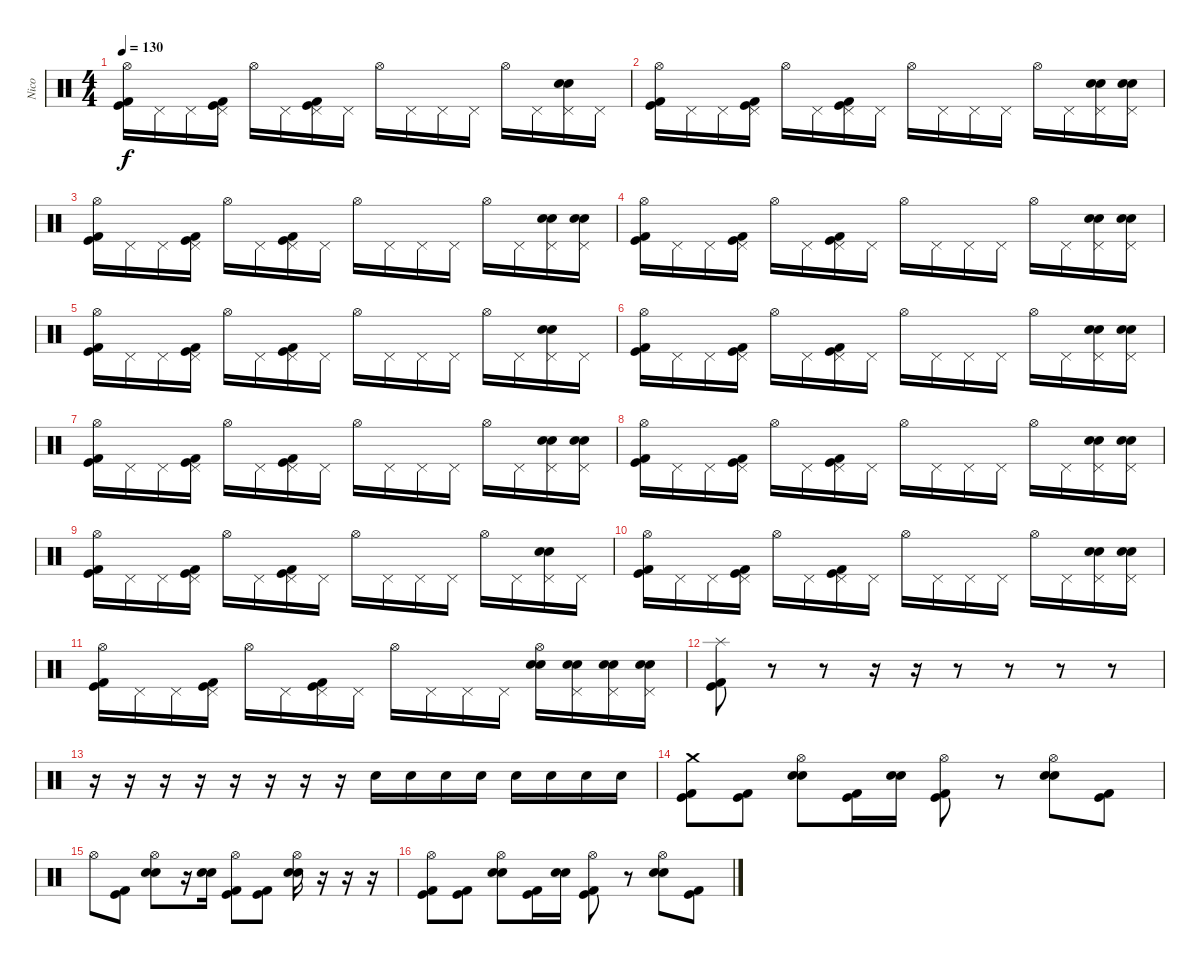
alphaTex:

\track ("Nico" "Nico") {instrument percussion}
\staff {score}
\articulation defaults
\ts (4 4)
\tempo 130
\clef neutral
\ks c
("Hi-Hat (open)" "Kick (hit) 2" "Kick (hit)").16{dy f} "Pedal Hi-Hat (hit)".16 "Pedal Hi-Hat (hit)".16 ("Pedal Hi-Hat (hit)" "Kick (hit) 2" "Kick (hit)").16 "Hi-Hat (open)".16 "Pedal Hi-Hat (hit)".16 ("Pedal Hi-Hat (hit)" "Kick (hit) 2" "Kick (hit)").16 "Pedal Hi-Hat (hit)".16 "Hi-Hat (open)".16 "Pedal Hi-Hat (hit)".16 "Pedal Hi-Hat (hit)".16 "Pedal Hi-Hat (hit)".16 "Hi-Hat (open)".16 "Pedal Hi-Hat (hit)".16 ("Pedal Hi-Hat (hit)" "Electric Snare (hit)" "Electric Snare (hit)").16 "Pedal Hi-Hat (hit)".16 |
("Hi-Hat (open)" "Kick (hit) 2" "Kick (hit)").16 "Pedal Hi-Hat (hit)".16 "Pedal Hi-Hat (hit)".16 ("Pedal Hi-Hat (hit)" "Kick (hit) 2" "Kick (hit)").16 "Hi-Hat (open)".16 "Pedal Hi-Hat (hit)".16 ("Pedal Hi-Hat (hit)" "Kick (hit) 2" "Kick (hit)").16 "Pedal Hi-Hat (hit)".16 "Hi-Hat (open)".16 "Pedal Hi-Hat (hit)".16 "Pedal Hi-Hat (hit)".16 "Pedal Hi-Hat (hit)".16 "Hi-Hat (open)".16 "Pedal Hi-Hat (hit)".16 ("Pedal Hi-Hat (hit)" "Electric Snare (hit)" "Electric Snare (hit)").16 ("Pedal Hi-Hat (hit)" "Electric Snare (hit)" "Electric Snare (hit)").16 |
("Hi-Hat (open)" "Kick (hit) 2" "Kick (hit)").16 "Pedal Hi-Hat (hit)".16 "Pedal Hi-Hat (hit)".16 ("Pedal Hi-Hat (hit)" "Kick (hit) 2" "Kick (hit)").16 "Hi-Hat (open)".16 "Pedal Hi-Hat (hit)".16 ("Pedal Hi-Hat (hit)" "Kick (hit) 2" "Kick (hit)").16 "Pedal Hi-Hat (hit)".16 "Hi-Hat (open)".16 "Pedal Hi-Hat (hit)".16 "Pedal Hi-Hat (hit)".16 "Pedal Hi-Hat (hit)".16 "Hi-Hat (open)".16 "Pedal Hi-Hat (hit)".16 ("Pedal Hi-Hat (hit)" "Electric Snare (hit)" "Electric Snare (hit)").16 ("Pedal Hi-Hat (hit)" "Electric Snare (hit)" "Electric Snare (hit)").16 |
("Hi-Hat (open)" "Kick (hit) 2" "Kick (hit)").16 "Pedal Hi-Hat (hit)".16 "Pedal Hi-Hat (hit)".16 ("Pedal Hi-Hat (hit)" "Kick (hit) 2" "Kick (hit)").16 "Hi-Hat (open)".16 "Pedal Hi-Hat (hit)".16 ("Pedal Hi-Hat (hit)" "Kick (hit) 2" "Kick (hit)").16 "Pedal Hi-Hat (hit)".16 "Hi-Hat (open)".16 "Pedal Hi-Hat (hit)".16 "Pedal Hi-Hat (hit)".16 "Pedal Hi-Hat (hit)".16 "Hi-Hat (open)".16 "Pedal Hi-Hat (hit)".16 ("Pedal Hi-Hat (hit)" "Electric Snare (hit)" "Electric Snare (hit)").16 ("Pedal Hi-Hat (hit)" "Electric Snare (hit)" "Electric Snare (hit)").16 |
("Hi-Hat (open)" "Kick (hit) 2" "Kick (hit)").16 "Pedal Hi-Hat (hit)".16 "Pedal Hi-Hat (hit)".16 ("Pedal Hi-Hat (hit)" "Kick (hit) 2" "Kick (hit)").16 "Hi-Hat (open)".16 "Pedal Hi-Hat (hit)".16 ("Pedal Hi-Hat (hit)" "Kick (hit) 2" "Kick (hit)").16 "Pedal Hi-Hat (hit)".16 "Hi-Hat (open)".16 "Pedal Hi-Hat (hit)".16 "Pedal Hi-Hat (hit)".16 "Pedal Hi-Hat (hit)".16 "Hi-Hat (open)".16 "Pedal Hi-Hat (hit)".16 ("Pedal Hi-Hat (hit)" "Electric Snare (hit)" "Electric Snare (hit)").16 "Pedal Hi-Hat (hit)".16 |
("Hi-Hat (open)" "Kick (hit) 2" "Kick (hit)").16 "Pedal Hi-Hat (hit)".16 "Pedal Hi-Hat (hit)".16 ("Pedal Hi-Hat (hit)" "Kick (hit) 2" "Kick (hit)").16 "Hi-Hat (open)".16 "Pedal Hi-Hat (hit)".16 ("Pedal Hi-Hat (hit)" "Kick (hit) 2" "Kick (hit)").16 "Pedal Hi-Hat (hit)".16 "Hi-Hat (open)".16 "Pedal Hi-Hat (hit)".16 "Pedal Hi-Hat (hit)".16 "Pedal Hi-Hat (hit)".16 "Hi-Hat (open)".16 "Pedal Hi-Hat (hit)".16 ("Pedal Hi-Hat (hit)" "Electric Snare (hit)" "Electric Snare (hit)").16 ("Pedal Hi-Hat (hit)" "Electric Snare (hit)" "Electric Snare (hit)").16 |
("Hi-Hat (open)" "Kick (hit) 2" "Kick (hit)").16 "Pedal Hi-Hat (hit)".16 "Pedal Hi-Hat (hit)".16 ("Pedal Hi-Hat (hit)" "Kick (hit) 2" "Kick (hit)").16 "Hi-Hat (open)".16 "Pedal Hi-Hat (hit)".16 ("Pedal Hi-Hat (hit)" "Kick (hit) 2" "Kick (hit)").16 "Pedal Hi-Hat (hit)".16 "Hi-Hat (open)".16 "Pedal Hi-Hat (hit)".16 "Pedal Hi-Hat (hit)".16 "Pedal Hi-Hat (hit)".16 "Hi-Hat (open)".16 "Pedal Hi-Hat (hit)".16 ("Pedal Hi-Hat (hit)" "Electric Snare (hit)" "Electric Snare (hit)").16 ("Pedal Hi-Hat (hit)" "Electric Snare (hit)" "Electric Snare (hit)").16 |
("Hi-Hat (open)" "Kick (hit) 2" "Kick (hit)").16 "Pedal Hi-Hat (hit)".16 "Pedal Hi-Hat (hit)".16 ("Pedal Hi-Hat (hit)" "Kick (hit) 2" "Kick (hit)").16 "Hi-Hat (open)".16 "Pedal Hi-Hat (hit)".16 ("Pedal Hi-Hat (hit)" "Kick (hit) 2" "Kick (hit)").16 "Pedal Hi-Hat (hit)".16 "Hi-Hat (open)".16 "Pedal Hi-Hat (hit)".16 "Pedal Hi-Hat (hit)".16 "Pedal Hi-Hat (hit)".16 "Hi-Hat (open)".16 "Pedal Hi-Hat (hit)".16 ("Pedal Hi-Hat (hit)" "Electric Snare (hit)" "Electric Snare (hit)").16 ("Pedal Hi-Hat (hit)" "Electric Snare (hit)" "Electric Snare (hit)").16 |
("Hi-Hat (open)" "Kick (hit) 2" "Kick (hit)").16 "Pedal Hi-Hat (hit)".16 "Pedal Hi-Hat (hit)".16 ("Pedal Hi-Hat (hit)" "Kick (hit) 2" "Kick (hit)").16 "Hi-Hat (open)".16 "Pedal Hi-Hat (hit)".16 ("Pedal Hi-Hat (hit)" "Kick (hit) 2" "Kick (hit)").16 "Pedal Hi-Hat (hit)".16 "Hi-Hat (open)".16 "Pedal Hi-Hat (hit)".16 "Pedal Hi-Hat (hit)".16 "Pedal Hi-Hat (hit)".16 "Hi-Hat (open)".16 "Pedal Hi-Hat (hit)".16 ("Pedal Hi-Hat (hit)" "Electric Snare (hit)" "Electric Snare (hit)").16 "Pedal Hi-Hat (hit)".16 |
("Hi-Hat (open)" "Kick (hit) 2" "Kick (hit)").16 "Pedal Hi-Hat (hit)".16 "Pedal Hi-Hat (hit)".16 ("Pedal Hi-Hat (hit)" "Kick (hit) 2" "Kick (hit)").16 "Hi-Hat (open)".16 "Pedal Hi-Hat (hit)".16 ("Pedal Hi-Hat (hit)" "Kick (hit) 2" "Kick (hit)").16 "Pedal Hi-Hat (hit)".16 "Hi-Hat (open)".16 "Pedal Hi-Hat (hit)".16 "Pedal Hi-Hat (hit)".16 "Pedal Hi-Hat (hit)".16 "Hi-Hat (open)".16 "Pedal Hi-Hat (hit)".16 ("Pedal Hi-Hat (hit)" "Electric Snare (hit)" "Electric Snare (hit)").16 ("Pedal Hi-Hat (hit)" "Electric Snare (hit)" "Electric Snare (hit)").16 |
("Hi-Hat (open)" "Kick (hit) 2" "Kick (hit)").16 "Pedal Hi-Hat (hit)".16 "Pedal Hi-Hat (hit)".16 ("Pedal Hi-Hat (hit)" "Kick (hit) 2" "Kick (hit)").16 "Hi-Hat (open)".16 "Pedal Hi-Hat (hit)".16 ("Pedal Hi-Hat (hit)" "Kick (hit) 2" "Kick (hit)").16 "Pedal Hi-Hat (hit)".16 "Hi-Hat (open)".16 "Pedal Hi-Hat (hit)".16 "Pedal Hi-Hat (hit)".16 "Pedal Hi-Hat (hit)".16 ("Hi-Hat (open)" "Electric Snare (hit)" "Electric Snare (hit)").16 ("Pedal Hi-Hat (hit)" "Electric Snare (hit)" "Electric Snare (hit)").16 ("Pedal Hi-Hat (hit)" "Electric Snare (hit)" "Electric Snare (hit)").16 ("Pedal Hi-Hat (hit)" "Electric Snare (hit)" "Electric Snare (hit)").16 |
("Splash (hit)" "Kick (hit) 2" "Kick (hit)").8 r.8 r.8 r.16 r.16 r.8 r.8 r.8 r.8 |
r.16 r.16 r.16 r.16 r.16 r.16 r.16 r.16 "Electric Snare (hit)".16 "Electric Snare (hit)".16 "Electric Snare (hit)".16 "Electric Snare (hit)".16 "Electric Snare (hit)".16 "Electric Snare (hit)".16 "Electric Snare (hit)".16 "Electric Snare (hit)".16 |
("Crash medium (hit)" "Kick (hit) 2" "Kick (hit)").8 ("Kick (hit) 2" "Kick (hit)").8 ("Hi-Hat (open)" "Electric Snare (hit)" "Electric Snare (hit)").8 ("Kick (hit) 2" "Kick (hit)").16 ("Electric Snare (hit)" "Electric Snare (hit)").16 ("Hi-Hat (open)" "Kick (hit) 2" "Kick (hit)").8 r.8 ("Hi-Hat (open)" "Electric Snare (hit)" "Electric Snare (hit)").8 ("Kick (hit)" "Kick (hit) 2").8 |
"Hi-Hat (open)".8 ("Kick (hit) 2" "Kick (hit)").8 ("Hi-Hat (open)" "Electric Snare (hit)" "Electric Snare (hit)").8 r.16 ("Electric Snare (hit)" "Electric Snare (hit)").16 ("Hi-Hat (open)" "Kick (hit) 2" "Kick (hit)").8 ("Kick (hit) 2" "Kick (hit)").8 ("Hi-Hat (open)" "Electric Snare (hit)" "Electric Snare (hit)").16 r.16 r.16 r.16 |
("Hi-Hat (open)" "Kick (hit) 2" "Kick (hit)").8 ("Kick (hit) 2" "Kick (hit)").8 ("Hi-Hat (open)" "Electric Snare (hit)" "Electric Snare (hit)").8 ("Kick (hit) 2" "Kick (hit)").16 ("Electric Snare (hit)" "Electric Snare (hit)").16 ("Hi-Hat (open)" "Kick (hit) 2" "Kick (hit)").8 r.8 ("Hi-Hat (open)" "Electric Snare (hit)" "Electric Snare (hit)").8 ("Kick (hit)" "Kick (hit) 2").8
